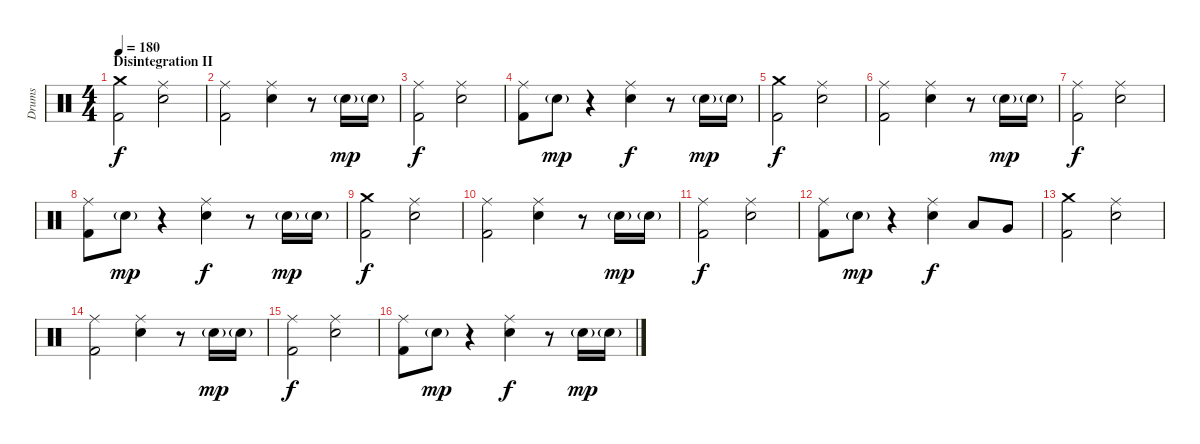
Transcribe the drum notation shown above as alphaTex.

\track ("Drums" "Drums") {instrument percussion}
\staff {score}
\articulation defaults
\ts (4 4)
\section ("" "Disintegration II")
\tempo 180
\clef neutral
\ks c
("Crash medium (hit)" "Kick (hit) 2").2{dy f} ("Ride (middle)" "Electric Snare (hit)").2 |
("Ride (middle)" "Kick (hit) 2").2 ("Ride (middle)" "Electric Snare (hit)").4 r.8 "Electric Snare (hit)"{g}.16{dy mp} "Electric Snare (hit)"{g}.16 |
("Ride (middle)" "Kick (hit) 2").2{dy f} ("Ride (middle)" "Electric Snare (hit)").2 |
("Ride (middle)" "Kick (hit) 2").8 "Electric Snare (hit)"{g}.8{dy mp} r.4 ("Ride (middle)" "Electric Snare (hit)").4{dy f} r.8 "Electric Snare (hit)"{g}.16{dy mp} "Electric Snare (hit)"{g}.16 |
("Crash medium (hit)" "Kick (hit) 2").2{dy f} ("Ride (middle)" "Electric Snare (hit)").2 |
("Ride (middle)" "Kick (hit) 2").2 ("Ride (middle)" "Electric Snare (hit)").4 r.8 "Electric Snare (hit)"{g}.16{dy mp} "Electric Snare (hit)"{g}.16 |
("Ride (middle)" "Kick (hit) 2").2{dy f} ("Ride (middle)" "Electric Snare (hit)").2 |
("Ride (middle)" "Kick (hit) 2").8 "Electric Snare (hit)"{g}.8{dy mp} r.4 ("Ride (middle)" "Electric Snare (hit)").4{dy f} r.8 "Electric Snare (hit)"{g}.16{dy mp} "Electric Snare (hit)"{g}.16 |
("Crash medium (hit)" "Kick (hit) 2").2{dy f} ("Ride (middle)" "Electric Snare (hit)").2 |
("Ride (middle)" "Kick (hit) 2").2 ("Ride (middle)" "Electric Snare (hit)").4 r.8 "Electric Snare (hit)"{g}.16{dy mp} "Electric Snare (hit)"{g}.16 |
("Ride (middle)" "Kick (hit) 2").2{dy f} ("Ride (middle)" "Electric Snare (hit)").2 |
("Ride (middle)" "Kick (hit) 2").8 "Electric Snare (hit)"{g}.8{dy mp} r.4 ("Ride (middle)" "Electric Snare (hit)").4{dy f} "Low Tom (hit)".8 "Very Low Tom (hit)".8 |
("Crash medium (hit)" "Kick (hit) 2").2 ("Ride (middle)" "Electric Snare (hit)").2 |
("Ride (middle)" "Kick (hit) 2").2 ("Ride (middle)" "Electric Snare (hit)").4 r.8 "Electric Snare (hit)"{g}.16{dy mp} "Electric Snare (hit)"{g}.16 |
("Ride (middle)" "Kick (hit) 2").2{dy f} ("Ride (middle)" "Electric Snare (hit)").2 |
("Ride (middle)" "Kick (hit) 2").8 "Electric Snare (hit)"{g}.8{dy mp} r.4 ("Ride (middle)" "Electric Snare (hit)").4{dy f} r.8 "Electric Snare (hit)"{g}.16{dy mp} "Electric Snare (hit)"{g}.16
